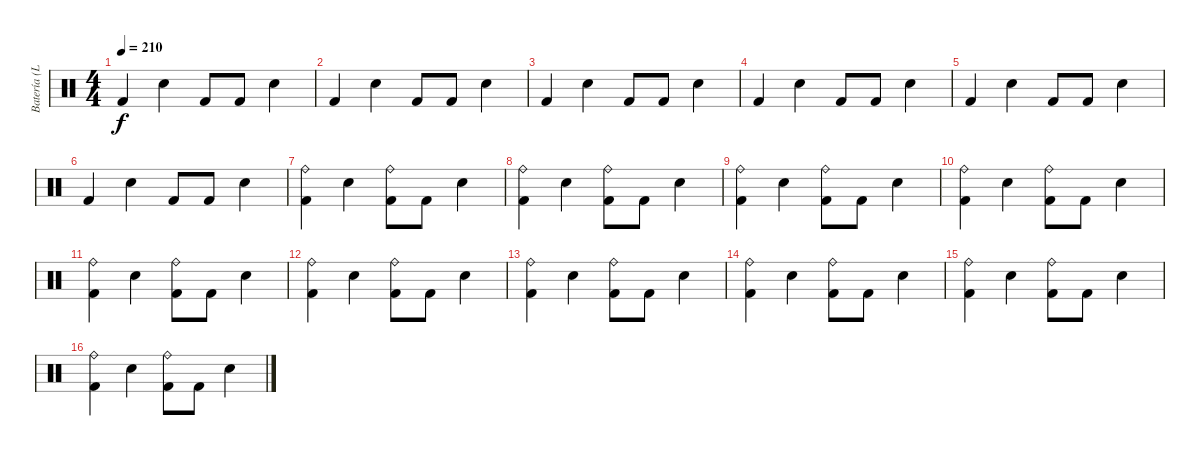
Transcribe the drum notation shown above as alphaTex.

\track ("Batería (Leo)" "Batería (L") {instrument percussion}
\staff {score}
\articulation defaults
\ts (4 4)
\tempo 210
\clef neutral
\ks c "Kick (hit) 2".4{dy f} "Snare (hit) 2".4 "Kick (hit) 2".8 "Kick (hit) 2".8 "Snare (hit) 2".4
|
"Kick (hit) 2".4 "Snare (hit) 2".4 "Kick (hit) 2".8 "Kick (hit) 2".8 "Snare (hit) 2".4 |
"Kick (hit) 2".4 "Snare (hit) 2".4 "Kick (hit) 2".8 "Kick (hit) 2".8 "Snare (hit) 2".4 |
"Kick (hit) 2".4 "Snare (hit) 2".4 "Kick (hit) 2".8 "Kick (hit) 2".8 "Snare (hit) 2".4 |
"Kick (hit) 2".4 "Snare (hit) 2".4 "Kick (hit) 2".8 "Kick (hit) 2".8 "Snare (hit) 2".4 |
"Kick (hit) 2".4 "Snare (hit) 2".4 "Kick (hit) 2".8 "Kick (hit) 2".8 "Snare (hit) 2".4 |
("Ride (bell)" "Kick (hit) 2").4 "Snare (hit) 2".4 ("Ride (bell)" "Kick (hit) 2").8 "Kick (hit) 2".8 "Snare (hit) 2".4 |
("Ride (bell)" "Kick (hit) 2").4 "Snare (hit) 2".4 ("Ride (bell)" "Kick (hit) 2").8 "Kick (hit) 2".8 "Snare (hit) 2".4 |
("Ride (bell)" "Kick (hit) 2").4 "Snare (hit) 2".4 ("Ride (bell)" "Kick (hit) 2").8 "Kick (hit) 2".8 "Snare (hit) 2".4 |
("Ride (bell)" "Kick (hit) 2").4 "Snare (hit) 2".4 ("Ride (bell)" "Kick (hit) 2").8 "Kick (hit) 2".8 "Snare (hit) 2".4 |
("Ride (bell)" "Kick (hit) 2").4 "Snare (hit) 2".4 ("Ride (bell)" "Kick (hit) 2").8 "Kick (hit) 2".8 "Snare (hit) 2".4 |
("Ride (bell)" "Kick (hit) 2").4 "Snare (hit) 2".4 ("Ride (bell)" "Kick (hit) 2").8 "Kick (hit) 2".8 "Snare (hit) 2".4 |
("Ride (bell)" "Kick (hit) 2").4 "Snare (hit) 2".4 ("Ride (bell)" "Kick (hit) 2").8 "Kick (hit) 2".8 "Snare (hit) 2".4 |
("Ride (bell)" "Kick (hit) 2").4 "Snare (hit) 2".4 ("Ride (bell)" "Kick (hit) 2").8 "Kick (hit) 2".8 "Snare (hit) 2".4 |
("Ride (bell)" "Kick (hit) 2").4 "Snare (hit) 2".4 ("Ride (bell)" "Kick (hit) 2").8 "Kick (hit) 2".8 "Snare (hit) 2".4 |
("Ride (bell)" "Kick (hit) 2").4 "Snare (hit) 2".4 ("Ride (bell)" "Kick (hit) 2").8 "Kick (hit) 2".8 "Snare (hit) 2".4
